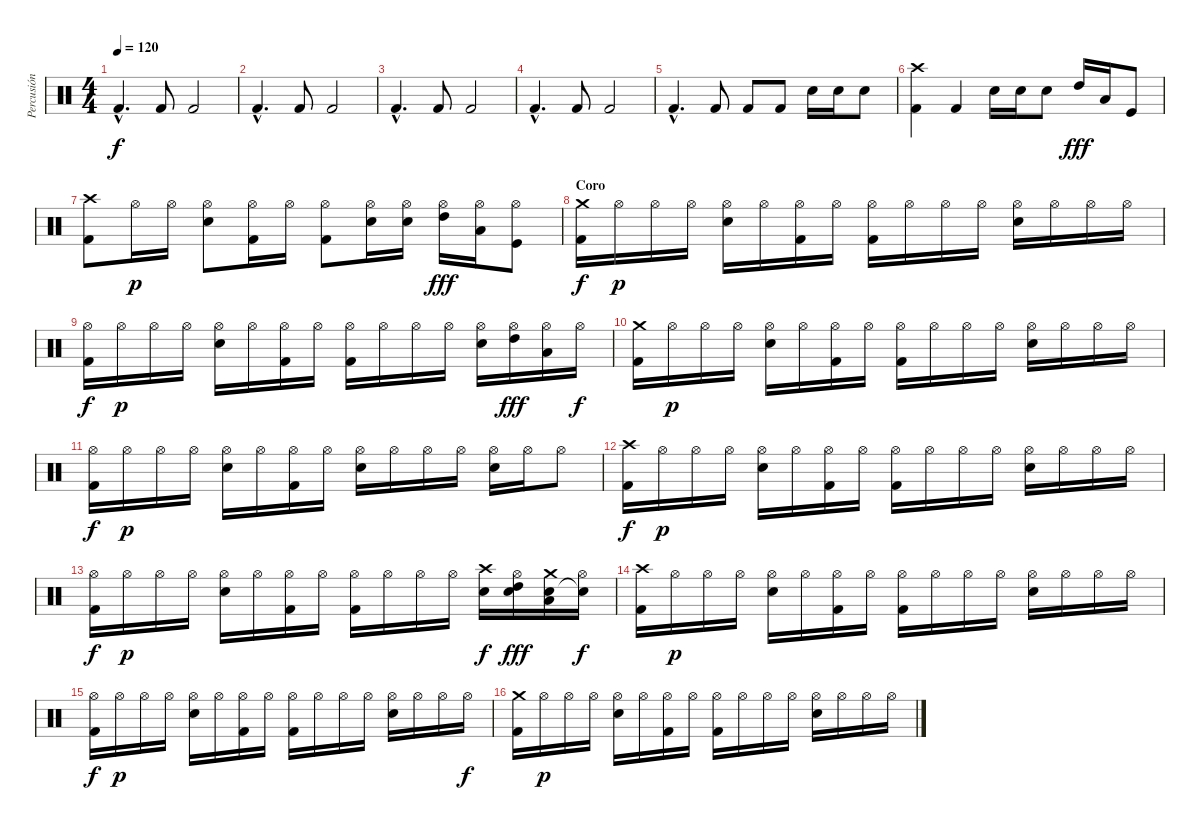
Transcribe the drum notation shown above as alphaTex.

\track ("Percusión" "Percusión") {instrument percussion}
\staff {score}
\articulation defaults
\ts (4 4)
\tempo 120
\clef neutral
\ks c "Kick (hit) 2"{hac}.4{d dy f} "Kick (hit) 2".8 "Kick (hit) 2".2
|
"Kick (hit) 2"{hac}.4{d} "Kick (hit) 2".8 "Kick (hit) 2".2 |
"Kick (hit) 2"{hac}.4{d} "Kick (hit) 2".8 "Kick (hit) 2".2 |
"Kick (hit) 2"{hac}.4{d} "Kick (hit) 2".8 "Kick (hit) 2".2 |
"Kick (hit) 2"{hac}.4{d} "Kick (hit) 2".8{volume 16} "Kick (hit) 2".8 "Kick (hit) 2".8 "Snare (hit) 2".16 "Snare (hit) 2".16 "Snare (hit) 2".8 |
("Kick (hit) 2" "Crash high (hit)").4 "Kick (hit) 2".4 "Snare (hit) 2".16 "Snare (hit) 2".16 "Snare (hit) 2".8 "High Tom (hit)".16{dy fff} "Low Tom (hit)".16 "Kick (hit)".8 |
("Crash high (hit)" "Kick (hit) 2").8 "Hi-Hat (open)".16{dy p} "Hi-Hat (open)".16 ("Hi-Hat (open)" "Snare (hit) 2").8 ("Hi-Hat (open)" "Kick (hit) 2").16 "Hi-Hat (open)".16 ("Hi-Hat (open)" "Kick (hit) 2").8 ("Hi-Hat (open)" "Snare (hit) 2").16 ("Hi-Hat (open)" "Snare (hit) 2").16 ("Hi-Hat (open)" "High Tom (hit)").16{dy fff} ("Hi-Hat (open)" "Low Tom (hit)").16 ("Hi-Hat (open)" "Kick (hit)").8 |
\section ("" "Coro")
("Crash medium (hit)" "Kick (hit) 2").16{dy f} "Hi-Hat (open)".16{dy p} "Hi-Hat (open)".16 "Hi-Hat (open)".16 ("Hi-Hat (open)" "Snare (hit) 2").16 "Hi-Hat (open)".16 ("Hi-Hat (open)" "Kick (hit) 2").16 "Hi-Hat (open)".16 ("Hi-Hat (open)" "Kick (hit) 2").16 "Hi-Hat (open)".16 "Hi-Hat (open)".16 "Hi-Hat (open)".16 ("Hi-Hat (open)" "Snare (hit) 2").16 "Hi-Hat (open)".16 "Hi-Hat (open)".16 "Hi-Hat (open)".16 |
("Hi-Hat (open)" "Kick (hit) 2").16{dy f} "Hi-Hat (open)".16{dy p} "Hi-Hat (open)".16 "Hi-Hat (open)".16 ("Hi-Hat (open)" "Snare (hit) 2").16 "Hi-Hat (open)".16 ("Hi-Hat (open)" "Kick (hit) 2").16 "Hi-Hat (open)".16 ("Hi-Hat (open)" "Kick (hit) 2").16 "Hi-Hat (open)".16 "Hi-Hat (open)".16 "Hi-Hat (open)".16 ("Hi-Hat (open)" "Snare (hit) 2").16 ("Hi-Hat (open)" "High Tom (hit)").16{dy fff} ("Hi-Hat (open)" "Low Tom (hit)").16 "Hi-Hat (open)".16{dy f} |
("Crash medium (hit)" "Kick (hit) 2").16 "Hi-Hat (open)".16{dy p} "Hi-Hat (open)".16 "Hi-Hat (open)".16 ("Hi-Hat (open)" "Snare (hit) 2").16 "Hi-Hat (open)".16 ("Hi-Hat (open)" "Kick (hit) 2").16 "Hi-Hat (open)".16 ("Hi-Hat (open)" "Kick (hit) 2").16 "Hi-Hat (open)".16 "Hi-Hat (open)".16 "Hi-Hat (open)".16 ("Hi-Hat (open)" "Snare (hit) 2").16 "Hi-Hat (open)".16 "Hi-Hat (open)".16 "Hi-Hat (open)".16 |
("Hi-Hat (open)" "Kick (hit) 2").16{dy f} "Hi-Hat (open)".16{dy p} "Hi-Hat (open)".16 "Hi-Hat (open)".16 ("Hi-Hat (open)" "Snare (hit) 2").16 "Hi-Hat (open)".16 ("Hi-Hat (open)" "Kick (hit) 2").16 "Hi-Hat (open)".16 ("Hi-Hat (open)" "Snare (hit) 2").16 "Hi-Hat (open)".16 "Hi-Hat (open)".16 "Hi-Hat (open)".16 ("Hi-Hat (open)" "Snare (hit) 2").16 "Hi-Hat (open)".16 "Hi-Hat (open)".8 |
("Crash high (hit)" "Kick (hit) 2").16{dy f} "Hi-Hat (open)".16{dy p} "Hi-Hat (open)".16 "Hi-Hat (open)".16 ("Hi-Hat (open)" "Snare (hit) 2").16 "Hi-Hat (open)".16 ("Hi-Hat (open)" "Kick (hit) 2").16 "Hi-Hat (open)".16 ("Hi-Hat (open)" "Kick (hit) 2").16 "Hi-Hat (open)".16 "Hi-Hat (open)".16 "Hi-Hat (open)".16 ("Hi-Hat (open)" "Snare (hit) 2").16 "Hi-Hat (open)".16 "Hi-Hat (open)".16 "Hi-Hat (open)".16 |
("Hi-Hat (open)" "Kick (hit) 2").16{dy f} "Hi-Hat (open)".16{dy p} "Hi-Hat (open)".16 "Hi-Hat (open)".16 ("Hi-Hat (open)" "Snare (hit) 2").16 "Hi-Hat (open)".16 ("Hi-Hat (open)" "Kick (hit) 2").16 "Hi-Hat (open)".16 ("Hi-Hat (open)" "Kick (hit) 2").16 "Hi-Hat (open)".16 "Hi-Hat (open)".16 "Hi-Hat (open)".16 ("Snare (hit) 2" "Crash high (hit)").16{dy f} ("Hi-Hat (open)" "High Tom (hit)" "Snare (hit)").16{dy fff} ("Low Tom (hit)" "Snare (hit) 2" "Crash medium (hit)").16 ("Hi-Hat (open)" "Snare (hit)"{t}).16{dy f} |
("Crash high (hit)" "Kick (hit) 2").16 "Hi-Hat (open)".16{dy p} "Hi-Hat (open)".16 "Hi-Hat (open)".16 ("Hi-Hat (open)" "Snare (hit) 2").16 "Hi-Hat (open)".16 ("Hi-Hat (open)" "Kick (hit) 2").16 "Hi-Hat (open)".16 ("Hi-Hat (open)" "Kick (hit) 2").16 "Hi-Hat (open)".16 "Hi-Hat (open)".16 "Hi-Hat (open)".16 ("Hi-Hat (open)" "Snare (hit) 2").16 "Hi-Hat (open)".16 "Hi-Hat (open)".16 "Hi-Hat (open)".16 |
("Hi-Hat (open)" "Kick (hit) 2").16{dy f} "Hi-Hat (open)".16{dy p} "Hi-Hat (open)".16 "Hi-Hat (open)".16 ("Hi-Hat (open)" "Snare (hit) 2").16 "Hi-Hat (open)".16 ("Hi-Hat (open)" "Kick (hit) 2").16 "Hi-Hat (open)".16 ("Hi-Hat (open)" "Kick (hit) 2").16 "Hi-Hat (open)".16 "Hi-Hat (open)".16 "Hi-Hat (open)".16 ("Hi-Hat (open)" "Snare (hit) 2").16 "Hi-Hat (open)".16 "Hi-Hat (open)".16 "Hi-Hat (open)".16{dy f} |
("Crash medium (hit)" "Kick (hit) 2").16 "Hi-Hat (open)".16{dy p} "Hi-Hat (open)".16 "Hi-Hat (open)".16 ("Hi-Hat (open)" "Snare (hit) 2").16 "Hi-Hat (open)".16 ("Hi-Hat (open)" "Kick (hit) 2").16 "Hi-Hat (open)".16 ("Hi-Hat (open)" "Kick (hit) 2").16 "Hi-Hat (open)".16 "Hi-Hat (open)".16 "Hi-Hat (open)".16 ("Hi-Hat (open)" "Snare (hit) 2").16 "Hi-Hat (open)".16 "Hi-Hat (open)".16 "Hi-Hat (open)".16
